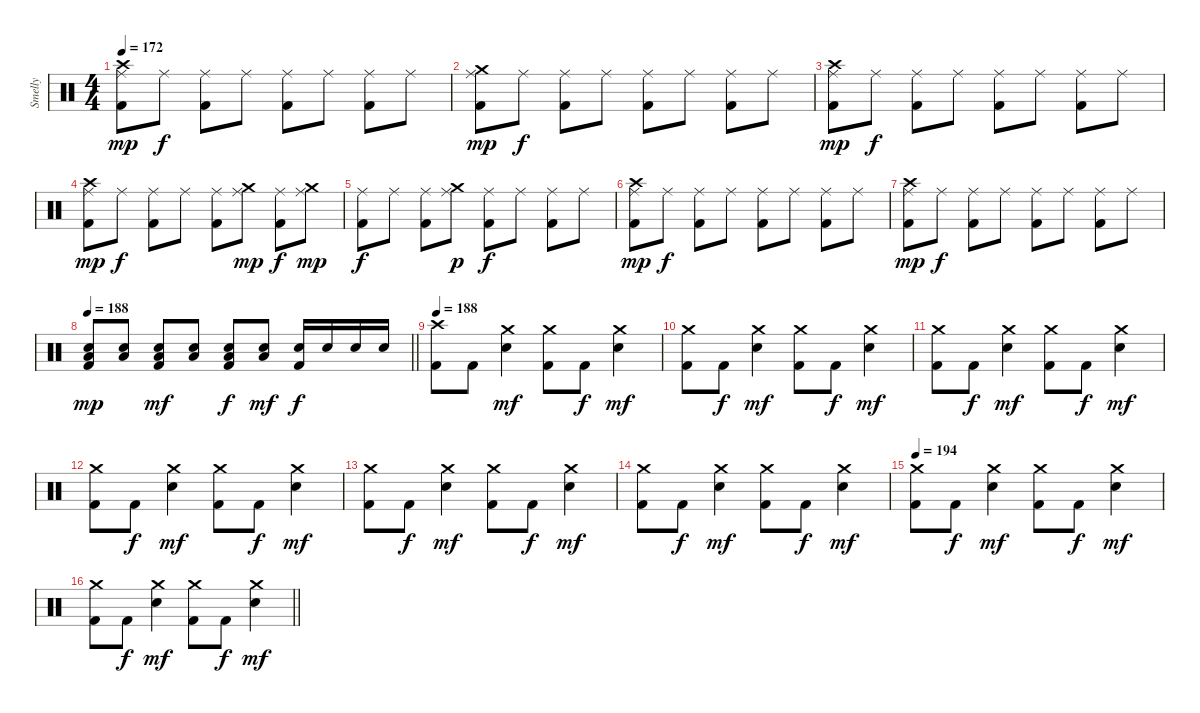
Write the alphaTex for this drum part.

\track ("Smelly" "Smelly") {instrument percussion}
\staff {score}
\articulation defaults
\ts (4 4)
\section ("" "")
\tempo 172
\clef neutral
\ks c
("Ride (middle)" "Crash high (hit)" "Kick (hit) 2").8{dy mp} "Ride (middle)".8{dy f} ("Ride (middle)" "Kick (hit) 2").8 "Ride (middle)".8 ("Ride (middle)" "Kick (hit) 2").8 "Ride (middle)".8 ("Ride (middle)" "Kick (hit) 2").8 "Ride (middle)".8 |
("Ride (middle)" "Crash medium (hit)" "Kick (hit) 2").8{dy mp} "Ride (middle)".8{dy f} ("Ride (middle)" "Kick (hit) 2").8 "Ride (middle)".8 ("Ride (middle)" "Kick (hit) 2").8 "Ride (middle)".8 ("Ride (middle)" "Kick (hit) 2").8 "Ride (middle)".8 |
("Ride (middle)" "Crash high (hit)" "Kick (hit) 2").8{dy mp} "Ride (middle)".8{dy f} ("Ride (middle)" "Kick (hit) 2").8 "Ride (middle)".8 ("Ride (middle)" "Kick (hit) 2").8 "Ride (middle)".8 ("Ride (middle)" "Kick (hit) 2").8 "Ride (middle)".8 |
("Ride (middle)" "Crash high (hit)" "Kick (hit) 2").8{dy mp} "Ride (middle)".8{dy f} ("Ride (middle)" "Kick (hit) 2").8 "Ride (middle)".8 ("Ride (middle)" "Kick (hit) 2").8 ("Ride (middle)" "Crash medium (hit)").8{dy mp} ("Ride (middle)" "Kick (hit) 2").8{dy f} ("Ride (middle)" "Crash medium (hit)").8{dy mp} |
("Ride (middle)" "Kick (hit) 2").8{dy f} "Ride (middle)".8 ("Ride (middle)" "Kick (hit) 2").8 ("Ride (middle)" "Crash medium (hit)").8{dy p} ("Ride (middle)" "Kick (hit) 2").8{dy f} "Ride (middle)".8 ("Ride (middle)" "Kick (hit) 2").8 "Ride (middle)".8 |
("Ride (middle)" "Crash high (hit)" "Kick (hit) 2").8{dy mp} "Ride (middle)".8{dy f} ("Ride (middle)" "Kick (hit) 2").8 "Ride (middle)".8 ("Ride (middle)" "Kick (hit) 2").8 "Ride (middle)".8 ("Ride (middle)" "Kick (hit) 2").8 "Ride (middle)".8 |
("Ride (middle)" "Crash high (hit)" "Kick (hit) 2").8{dy mp} "Ride (middle)".8{dy f} ("Ride (middle)" "Kick (hit) 2").8 "Ride (middle)".8 ("Ride (middle)" "Kick (hit) 2").8 "Ride (middle)".8 ("Ride (middle)" "Kick (hit) 2").8 "Ride (middle)".8 |
\tempo 188
\barLineRight lightlight
("Electric Snare (hit)" "Low Floor Tom (hit)" "Kick (hit) 2").8{dy mp} ("Electric Snare (hit)" "Low Floor Tom (hit)").8 ("Electric Snare (hit)" "Low Floor Tom (hit)" "Kick (hit) 2").8{dy mf} ("Electric Snare (hit)" "Low Floor Tom (hit)").8 ("Electric Snare (hit)" "Low Floor Tom (hit)" "Kick (hit) 2").8{dy f} ("Electric Snare (hit)" "Low Floor Tom (hit)").8{dy mf} ("Electric Snare (hit)" "Kick (hit) 2").16{dy f} "Electric Snare (hit)".16 "Electric Snare (hit)".16 "Electric Snare (hit)".16 |
\tempo 188
("Crash high (hit)" "Kick (hit) 2").8 "Kick (hit) 2".8 ("Crash medium (hit)" "Electric Snare (hit)").4{dy mf} ("Crash medium (hit)" "Kick (hit) 2").8 "Kick (hit) 2".8{dy f} ("Crash medium (hit)" "Electric Snare (hit)").4{dy mf} |
("Crash medium (hit)" "Kick (hit) 2").8 "Kick (hit) 2".8{dy f} ("Crash medium (hit)" "Electric Snare (hit)").4{dy mf} ("Crash medium (hit)" "Kick (hit) 2").8 "Kick (hit) 2".8{dy f} ("Crash medium (hit)" "Electric Snare (hit)").4{dy mf} |
("Crash medium (hit)" "Kick (hit) 2").8 "Kick (hit) 2".8{dy f} ("Crash medium (hit)" "Electric Snare (hit)").4{dy mf} ("Crash medium (hit)" "Kick (hit) 2").8 "Kick (hit) 2".8{dy f} ("Crash medium (hit)" "Electric Snare (hit)").4{dy mf} |
("Crash medium (hit)" "Kick (hit) 2").8 "Kick (hit) 2".8{dy f} ("Crash medium (hit)" "Electric Snare (hit)").4{dy mf} ("Crash medium (hit)" "Kick (hit) 2").8 "Kick (hit) 2".8{dy f} ("Crash medium (hit)" "Electric Snare (hit)").4{dy mf} |
("Crash medium (hit)" "Kick (hit) 2").8 "Kick (hit) 2".8{dy f} ("Crash medium (hit)" "Electric Snare (hit)").4{dy mf} ("Crash medium (hit)" "Kick (hit) 2").8 "Kick (hit) 2".8{dy f} ("Crash medium (hit)" "Electric Snare (hit)").4{dy mf} |
("Crash medium (hit)" "Kick (hit) 2").8 "Kick (hit) 2".8{dy f} ("Crash medium (hit)" "Electric Snare (hit)").4{dy mf} ("Crash medium (hit)" "Kick (hit) 2").8 "Kick (hit) 2".8{dy f} ("Crash medium (hit)" "Electric Snare (hit)").4{dy mf} |
\tempo 194
("Crash medium (hit)" "Kick (hit) 2").8 "Kick (hit) 2".8{dy f} ("Crash medium (hit)" "Electric Snare (hit)").4{dy mf} ("Crash medium (hit)" "Kick (hit) 2").8 "Kick (hit) 2".8{dy f} ("Crash medium (hit)" "Electric Snare (hit)").4{dy mf} |
\barLineRight lightlight
("Crash medium (hit)" "Kick (hit) 2").8 "Kick (hit) 2".8{dy f} ("Crash medium (hit)" "Electric Snare (hit)").4{dy mf} ("Crash medium (hit)" "Kick (hit) 2").8 "Kick (hit) 2".8{dy f} ("Crash medium (hit)" "Electric Snare (hit)").4{dy mf}
